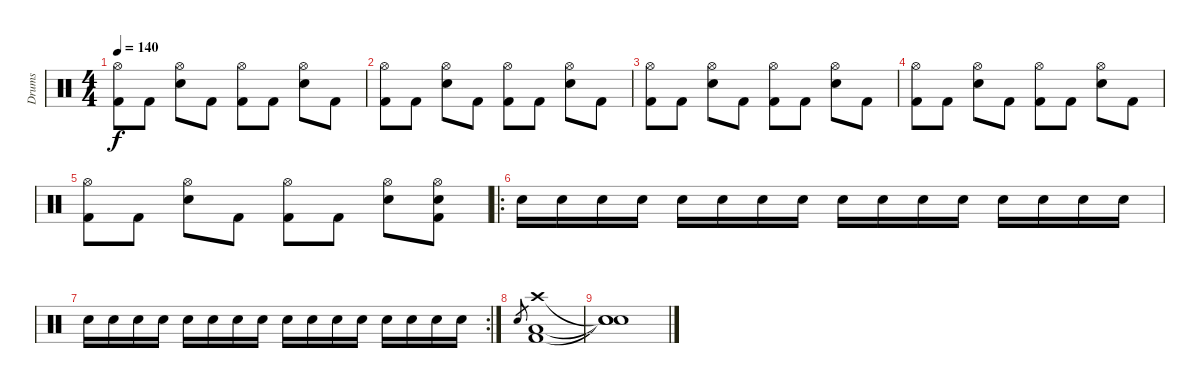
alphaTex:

\track ("Drums" "Drums") {instrument percussion}
\staff {score}
\articulation defaults
\ts (4 4)
\tempo 140
\clef neutral
\ks c
("Hi-Hat (open)" "Kick (hit) 2").8{dy f} "Kick (hit) 2".8 ("Hi-Hat (open)" "Snare (hit) 2").8 "Kick (hit) 2".8 ("Hi-Hat (open)" "Kick (hit) 2").8 "Kick (hit) 2".8 ("Hi-Hat (open)" "Snare (hit) 2").8 "Kick (hit) 2".8 |
("Hi-Hat (open)" "Kick (hit) 2").8 "Kick (hit) 2".8 ("Hi-Hat (open)" "Snare (hit) 2").8 "Kick (hit) 2".8 ("Hi-Hat (open)" "Kick (hit) 2").8 "Kick (hit) 2".8 ("Hi-Hat (open)" "Snare (hit) 2").8 "Kick (hit) 2".8 |
("Hi-Hat (open)" "Kick (hit) 2").8 "Kick (hit) 2".8 ("Hi-Hat (open)" "Snare (hit) 2").8 "Kick (hit) 2".8 ("Hi-Hat (open)" "Kick (hit) 2").8 "Kick (hit) 2".8 ("Hi-Hat (open)" "Snare (hit) 2").8 "Kick (hit) 2".8 |
("Hi-Hat (open)" "Kick (hit) 2").8 "Kick (hit) 2".8 ("Hi-Hat (open)" "Snare (hit) 2").8 "Kick (hit) 2".8 ("Hi-Hat (open)" "Kick (hit) 2").8 "Kick (hit) 2".8 ("Hi-Hat (open)" "Snare (hit) 2").8 "Kick (hit) 2".8 |
("Hi-Hat (open)" "Kick (hit) 2").8 "Kick (hit) 2".8 ("Hi-Hat (open)" "Snare (hit) 2").8 "Kick (hit) 2".8 ("Hi-Hat (open)" "Kick (hit) 2").8 "Kick (hit) 2".8 ("Hi-Hat (open)" "Snare (hit) 2").8 ("Hi-Hat (open)" "Snare (hit) 2" "Kick (hit) 2").8 |
\ro "Snare (hit) 2".16 "Snare (hit) 2".16 "Snare (hit) 2".16 "Snare (hit) 2".16 "Snare (hit) 2".16 "Snare (hit) 2".16 "Snare (hit) 2".16 "Snare (hit) 2".16 "Snare (hit) 2".16 "Snare (hit) 2".16 "Snare (hit) 2".16 "Snare (hit) 2".16 "Snare (hit) 2".16 "Snare (hit) 2".16 "Snare (hit) 2".16 "Snare (hit) 2".16
|
\rc 2 "Snare (hit) 2".16 "Snare (hit) 2".16 "Snare (hit) 2".16 "Snare (hit) 2".16 "Snare (hit) 2".16 "Snare (hit) 2".16 "Snare (hit) 2".16 "Snare (hit) 2".16 "Snare (hit) 2".16 "Snare (hit) 2".16 "Snare (hit) 2".16 "Snare (hit) 2".16 "Snare (hit) 2".16 "Snare (hit) 2".16 "Snare (hit) 2".16 "Snare (hit) 2".16
|
"Snare (hit) 2".8{gr} ("Crash high (hit)" "Low Floor Tom (hit)" "Kick (hit) 2").1 |
("Snare (hit)"{t} "Snare (hit)"{t} "Snare (hit)"{t}).1
